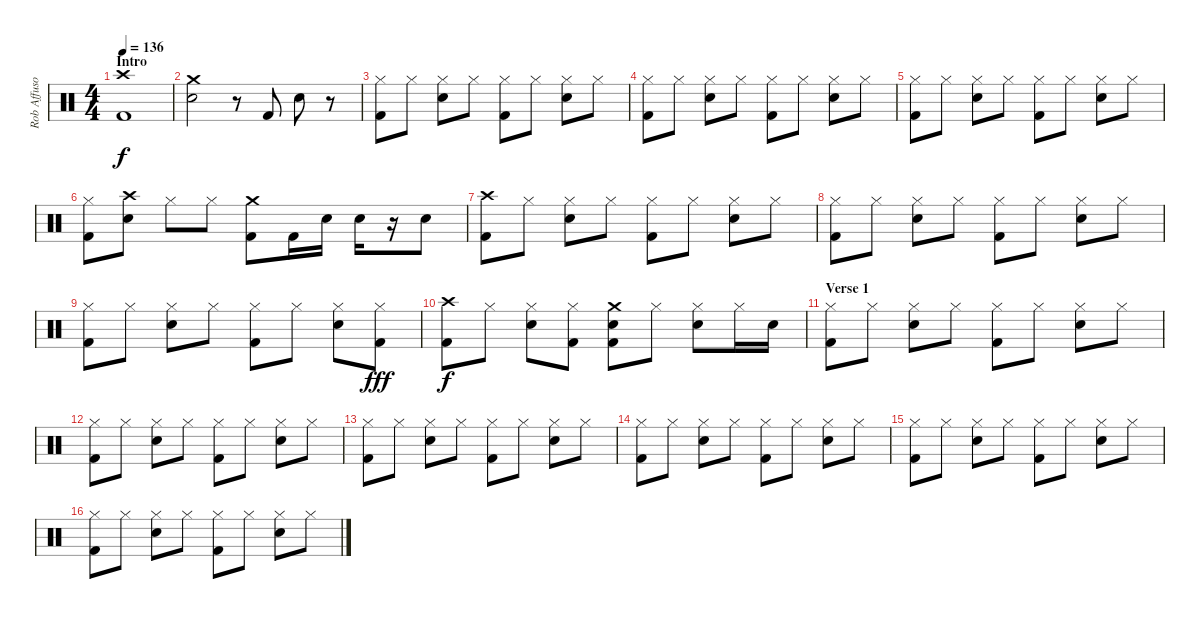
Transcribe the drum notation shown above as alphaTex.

\track ("Rob Affuso" "Rob Affuso") {instrument percussion}
\staff {score}
\articulation defaults
\ts (4 4)
\section ("" "Intro")
\tempo 136
\clef neutral
\ks c
("Crash high (hit)" "Kick (hit) 2").1{dy f} |
("Crash medium (hit)" "Snare (hit) 2").2 r.8 "Kick (hit) 2".8 "Snare (hit) 2".8 r.8 |
("Hi-Hat (closed)" "Kick (hit) 2").8 "Hi-Hat (closed)".8 ("Hi-Hat (closed)" "Snare (hit) 2").8 "Hi-Hat (closed)".8 ("Hi-Hat (closed)" "Kick (hit) 2").8 "Hi-Hat (closed)".8 ("Hi-Hat (closed)" "Snare (hit) 2").8 "Hi-Hat (closed)".8 |
("Hi-Hat (closed)" "Kick (hit) 2").8 "Hi-Hat (closed)".8 ("Hi-Hat (closed)" "Snare (hit) 2").8 "Hi-Hat (closed)".8 ("Hi-Hat (closed)" "Kick (hit) 2").8 "Hi-Hat (closed)".8 ("Hi-Hat (closed)" "Snare (hit) 2").8 "Hi-Hat (closed)".8 |
("Hi-Hat (closed)" "Kick (hit) 2").8 "Hi-Hat (closed)".8 ("Hi-Hat (closed)" "Snare (hit) 2").8 "Hi-Hat (closed)".8 ("Hi-Hat (closed)" "Kick (hit) 2").8 "Hi-Hat (closed)".8 ("Hi-Hat (closed)" "Snare (hit) 2").8 "Hi-Hat (closed)".8 |
("Hi-Hat (closed)" "Kick (hit) 2").8 ("Crash high (hit)" "Snare (hit) 2").8 "Hi-Hat (closed)".8 "Hi-Hat (closed)".8 ("Crash medium (hit)" "Kick (hit) 2").8 "Kick (hit) 2".16 "Snare (hit) 2".16 "Snare (hit) 2".16 r.16 "Snare (hit) 2".8 |
("Crash high (hit)" "Kick (hit) 2").8 "Hi-Hat (closed)".8 ("Hi-Hat (closed)" "Snare (hit) 2").8 "Hi-Hat (closed)".8 ("Hi-Hat (closed)" "Kick (hit) 2").8 "Hi-Hat (closed)".8 ("Hi-Hat (closed)" "Snare (hit) 2").8 "Hi-Hat (closed)".8 |
("Hi-Hat (closed)" "Kick (hit) 2").8 "Hi-Hat (closed)".8 ("Hi-Hat (closed)" "Snare (hit) 2").8 "Hi-Hat (closed)".8 ("Hi-Hat (closed)" "Kick (hit) 2").8 "Hi-Hat (closed)".8 ("Hi-Hat (closed)" "Snare (hit) 2").8 "Hi-Hat (closed)".8 |
("Hi-Hat (closed)" "Kick (hit) 2").8 "Hi-Hat (closed)".8 ("Hi-Hat (closed)" "Snare (hit) 2").8 "Hi-Hat (closed)".8 ("Hi-Hat (closed)" "Kick (hit) 2").8 "Hi-Hat (closed)".8 ("Hi-Hat (closed)" "Snare (hit) 2").8 ("Hi-Hat (closed)" "Kick (hit) 2").8{dy fff} |
("Crash high (hit)" "Kick (hit) 2").8{dy f} "Hi-Hat (closed)".8 ("Hi-Hat (closed)" "Snare (hit) 2").8 ("Hi-Hat (closed)" "Kick (hit) 2").8 ("Crash medium (hit)" "Snare (hit) 2" "Kick (hit) 2").8 "Hi-Hat (closed)".8 ("Hi-Hat (closed)" "Snare (hit) 2").8 "Hi-Hat (closed)".16 "Snare (hit) 2".16 |
\section ("" "Verse 1")
("Hi-Hat (closed)" "Kick (hit) 2").8 "Hi-Hat (closed)".8 ("Hi-Hat (closed)" "Snare (hit) 2").8 "Hi-Hat (closed)".8 ("Hi-Hat (closed)" "Kick (hit) 2").8 "Hi-Hat (closed)".8 ("Hi-Hat (closed)" "Snare (hit) 2").8 "Hi-Hat (closed)".8 |
("Hi-Hat (closed)" "Kick (hit) 2").8 "Hi-Hat (closed)".8 ("Hi-Hat (closed)" "Snare (hit) 2").8 "Hi-Hat (closed)".8 ("Hi-Hat (closed)" "Kick (hit) 2").8 "Hi-Hat (closed)".8 ("Hi-Hat (closed)" "Snare (hit) 2").8 "Hi-Hat (closed)".8 |
("Hi-Hat (closed)" "Kick (hit) 2").8 "Hi-Hat (closed)".8 ("Hi-Hat (closed)" "Snare (hit) 2").8 "Hi-Hat (closed)".8 ("Hi-Hat (closed)" "Kick (hit) 2").8 "Hi-Hat (closed)".8 ("Hi-Hat (closed)" "Snare (hit) 2").8 "Hi-Hat (closed)".8 |
("Hi-Hat (closed)" "Kick (hit) 2").8 "Hi-Hat (closed)".8 ("Hi-Hat (closed)" "Snare (hit) 2").8 "Hi-Hat (closed)".8 ("Hi-Hat (closed)" "Kick (hit) 2").8 "Hi-Hat (closed)".8 ("Hi-Hat (closed)" "Snare (hit) 2").8 "Hi-Hat (closed)".8 |
("Hi-Hat (closed)" "Kick (hit) 2").8 "Hi-Hat (closed)".8 ("Hi-Hat (closed)" "Snare (hit) 2").8 "Hi-Hat (closed)".8 ("Hi-Hat (closed)" "Kick (hit) 2").8 "Hi-Hat (closed)".8 ("Hi-Hat (closed)" "Snare (hit) 2").8 "Hi-Hat (closed)".8 |
("Hi-Hat (closed)" "Kick (hit) 2").8 "Hi-Hat (closed)".8 ("Hi-Hat (closed)" "Snare (hit) 2").8 "Hi-Hat (closed)".8 ("Hi-Hat (closed)" "Kick (hit) 2").8 "Hi-Hat (closed)".8 ("Hi-Hat (closed)" "Snare (hit) 2").8 "Hi-Hat (closed)".8
